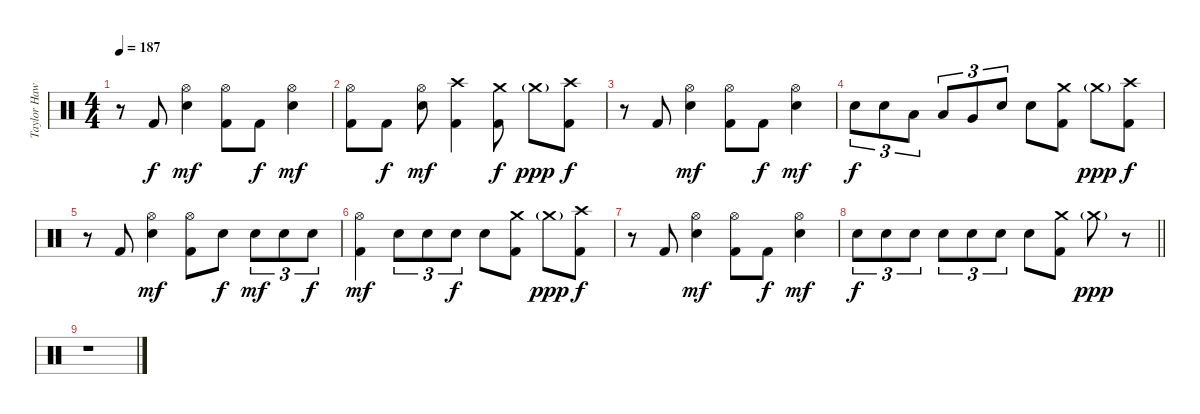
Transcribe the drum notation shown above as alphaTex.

\track ("Taylor Hawkins" "Taylor Haw") {instrument percussion}
\staff {score}
\articulation defaults
\ts (4 4)
\tempo 187
\clef neutral
\ks c
r.8{dy f} "Kick (hit) 2".8 ("Hi-Hat (open)" "Snare (hit) 2").4{dy mf} ("Hi-Hat (open)" "Kick (hit) 2").8 "Kick (hit) 2".8{dy f} ("Hi-Hat (open)" "Snare (hit) 2").4{dy mf} |
("Hi-Hat (open)" "Kick (hit) 2").8 "Kick (hit) 2".8{dy f} ("Hi-Hat (open)" "Snare (hit) 2").8{dy mf} ("Crash high (hit)" "Kick (hit) 2").4 ("Crash medium (hit)" "Kick (hit) 2").8{dy f} "Crash medium (hit)"{g}.8{dy ppp} ("Crash high (hit)" "Kick (hit) 2").8{dy f} |
r.8 "Kick (hit) 2".8 ("Hi-Hat (open)" "Snare (hit) 2").4{dy mf} ("Hi-Hat (open)" "Kick (hit) 2").8 "Kick (hit) 2".8{dy f} ("Hi-Hat (open)" "Snare (hit) 2").4{dy mf} |
"Snare (hit) 2".8{tu (3 2) dy f} "Snare (hit) 2".8{tu (3 2)} "Low Tom (hit)".8{tu (3 2)} "Low Tom (hit)".8{tu (3 2)} "Very Low Tom (hit)".8{tu (3 2)} "Snare (hit) 2".8{tu (3 2)} "Snare (hit) 2".8 ("Crash medium (hit)" "Kick (hit) 2").8 "Crash medium (hit)"{g}.8{dy ppp} ("Crash high (hit)" "Kick (hit) 2").8{dy f} |
r.8 "Kick (hit) 2".8 ("Hi-Hat (open)" "Snare (hit) 2").4{dy mf} ("Hi-Hat (open)" "Kick (hit) 2").8 "Snare (hit) 2".8{dy f} "Snare (hit) 2".8{tu (3 2) dy mf} "Snare (hit) 2".8{tu (3 2)} "Snare (hit) 2".8{tu (3 2) dy f} |
("Hi-Hat (open)" "Kick (hit) 2").4{dy mf} "Snare (hit) 2".8{tu (3 2)} "Snare (hit) 2".8{tu (3 2)} "Snare (hit) 2".8{tu (3 2) dy f} "Snare (hit) 2".8 ("Crash medium (hit)" "Kick (hit) 2").8 "Crash medium (hit)"{g}.8{dy ppp} ("Crash high (hit)" "Kick (hit) 2").8{dy f} |
r.8 "Kick (hit) 2".8 ("Hi-Hat (open)" "Snare (hit) 2").4{dy mf} ("Hi-Hat (open)" "Kick (hit) 2").8 "Kick (hit) 2".8{dy f} ("Hi-Hat (open)" "Snare (hit) 2").4{dy mf} |
\barLineRight lightlight "Snare (hit) 2".8{tu (3 2) dy f} "Snare (hit) 2".8{tu (3 2)} "Snare (hit) 2".8{tu (3 2)} "Snare (hit) 2".8{tu (3 2)} "Snare (hit) 2".8{tu (3 2)} "Snare (hit) 2".8{tu (3 2)} "Snare (hit) 2".8
("Crash medium (hit)" "Kick (hit) 2").8 "Crash medium (hit)"{g}.8{dy ppp} r.8 |
r.1
